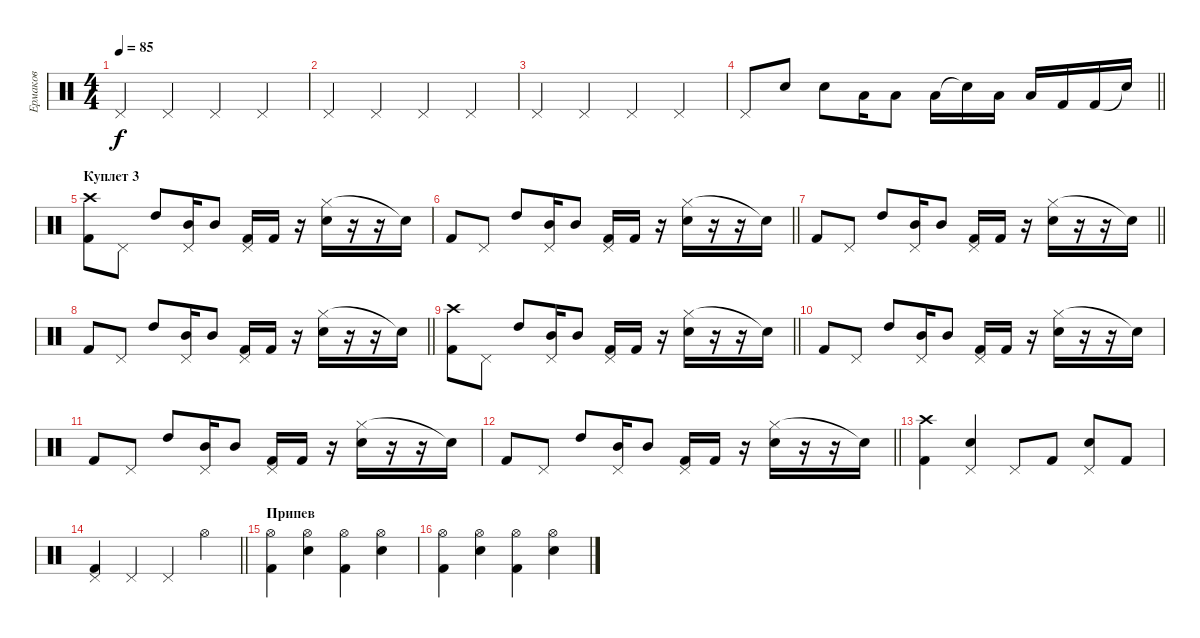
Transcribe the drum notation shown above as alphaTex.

\track ("Ермаков" "Ермаков") {instrument percussion}
\staff {score}
\articulation defaults
\ts (4 4)
\tempo 85
\clef neutral
\ks c "Pedal Hi-Hat (hit)".4{dy f} "Pedal Hi-Hat (hit)".4 "Pedal Hi-Hat (hit)".4 "Pedal Hi-Hat (hit)".4
|
"Pedal Hi-Hat (hit)".4 "Pedal Hi-Hat (hit)".4 "Pedal Hi-Hat (hit)".4 "Pedal Hi-Hat (hit)".4 |
"Pedal Hi-Hat (hit)".4 "Pedal Hi-Hat (hit)".4 "Pedal Hi-Hat (hit)".4 "Pedal Hi-Hat (hit)".4 |
\barLineRight lightlight "Pedal Hi-Hat (hit)".8 "Electric Snare (hit)".8 "Electric Snare (hit)".8 "Low Tom (hit)".16 "Low Tom (hit)".8 "Low Tom (hit)".16 "Snare (hit)"{t}.16 "Low Tom (hit)".16 "Low Tom (hit)".16 "Kick (hit) 2".16 "Kick (hit) 2".16 "Snare (hit)"{t}.16
|
\section ("" "Куплет 3")
("Crash high (hit)" "Kick (hit) 2").8 "Pedal Hi-Hat (hit)".8 "High Tom (hit)".8 ("Pedal Hi-Hat (hit)" "Mid Tom (hit)").16 "Mid Tom (hit)".8 ("Pedal Hi-Hat (hit)" "Kick (hit) 2").16 "Kick (hit) 2".16 r.16 ("Hi-Hat (closed)" "Snare (hit) 2").16 r.16 r.16 "Snare (hit)"{t}.16 |
\barLineRight lightlight "Kick (hit) 2".8 "Pedal Hi-Hat (hit)".8 "High Tom (hit)".8
("Pedal Hi-Hat (hit)" "Mid Tom (hit)").16 "Mid Tom (hit)".8 ("Pedal Hi-Hat (hit)" "Kick (hit) 2").16 "Kick (hit) 2".16 r.16 ("Hi-Hat (closed)" "Snare (hit) 2").16 r.16 r.16 "Snare (hit)"{t}.16 |
\barLineRight lightlight "Kick (hit) 2".8 "Pedal Hi-Hat (hit)".8 "High Tom (hit)".8
("Pedal Hi-Hat (hit)" "Mid Tom (hit)").16 "Mid Tom (hit)".8 ("Pedal Hi-Hat (hit)" "Kick (hit) 2").16 "Kick (hit) 2".16 r.16 ("Hi-Hat (closed)" "Snare (hit) 2").16 r.16 r.16 "Snare (hit)"{t}.16 |
\barLineRight lightlight "Kick (hit) 2".8 "Pedal Hi-Hat (hit)".8 "High Tom (hit)".8
("Pedal Hi-Hat (hit)" "Mid Tom (hit)").16 "Mid Tom (hit)".8 ("Pedal Hi-Hat (hit)" "Kick (hit) 2").16 "Kick (hit) 2".16 r.16 ("Hi-Hat (closed)" "Snare (hit) 2").16 r.16 r.16 "Snare (hit)"{t}.16 |
\barLineRight lightlight
("Crash high (hit)" "Kick (hit) 2").8 "Pedal Hi-Hat (hit)".8 "High Tom (hit)".8 ("Pedal Hi-Hat (hit)" "Mid Tom (hit)").16 "Mid Tom (hit)".8 ("Pedal Hi-Hat (hit)" "Kick (hit) 2").16 "Kick (hit) 2".16 r.16 ("Hi-Hat (closed)" "Snare (hit) 2").16 r.16 r.16 "Snare (hit)"{t}.16 |
"Kick (hit) 2".8 "Pedal Hi-Hat (hit)".8 "High Tom (hit)".8 ("Pedal Hi-Hat (hit)" "Mid Tom (hit)").16 "Mid Tom (hit)".8 ("Pedal Hi-Hat (hit)" "Kick (hit) 2").16 "Kick (hit) 2".16 r.16 ("Hi-Hat (closed)" "Snare (hit) 2").16 r.16 r.16 "Snare (hit)"{t}.16 |
"Kick (hit) 2".8 "Pedal Hi-Hat (hit)".8 "High Tom (hit)".8 ("Pedal Hi-Hat (hit)" "Mid Tom (hit)").16 "Mid Tom (hit)".8 ("Pedal Hi-Hat (hit)" "Kick (hit) 2").16 "Kick (hit) 2".16 r.16 ("Hi-Hat (closed)" "Snare (hit) 2").16 r.16 r.16 "Snare (hit)"{t}.16 |
\barLineRight lightlight "Kick (hit) 2".8 "Pedal Hi-Hat (hit)".8 "High Tom (hit)".8
("Pedal Hi-Hat (hit)" "Mid Tom (hit)").16 "Mid Tom (hit)".8 ("Pedal Hi-Hat (hit)" "Kick (hit) 2").16 "Kick (hit) 2".16 r.16 ("Hi-Hat (closed)" "Snare (hit) 2").16 r.16 r.16 "Snare (hit)"{t}.16 |
("Crash high (hit)" "Kick (hit) 2").4 ("Pedal Hi-Hat (hit)" "Snare (hit) 2").4 "Pedal Hi-Hat (hit)".8 "Kick (hit) 2".8 ("Pedal Hi-Hat (hit)" "Snare (hit) 2").8 "Kick (hit) 2".8 |
\barLineRight lightlight
("Pedal Hi-Hat (hit)" "Kick (hit) 2").4 "Pedal Hi-Hat (hit)".4 "Pedal Hi-Hat (hit)".4 "Hi-Hat (open)".4 |
\section ("" "Припев")
("Hi-Hat (open)" "Kick (hit) 2").4 ("Hi-Hat (open)" "Snare (hit) 2").4 ("Hi-Hat (open)" "Kick (hit) 2").4 ("Hi-Hat (open)" "Snare (hit) 2").4 |
("Hi-Hat (open)" "Kick (hit) 2").4 ("Hi-Hat (open)" "Snare (hit) 2").4 ("Hi-Hat (open)" "Kick (hit) 2").4 ("Hi-Hat (open)" "Snare (hit) 2").4
